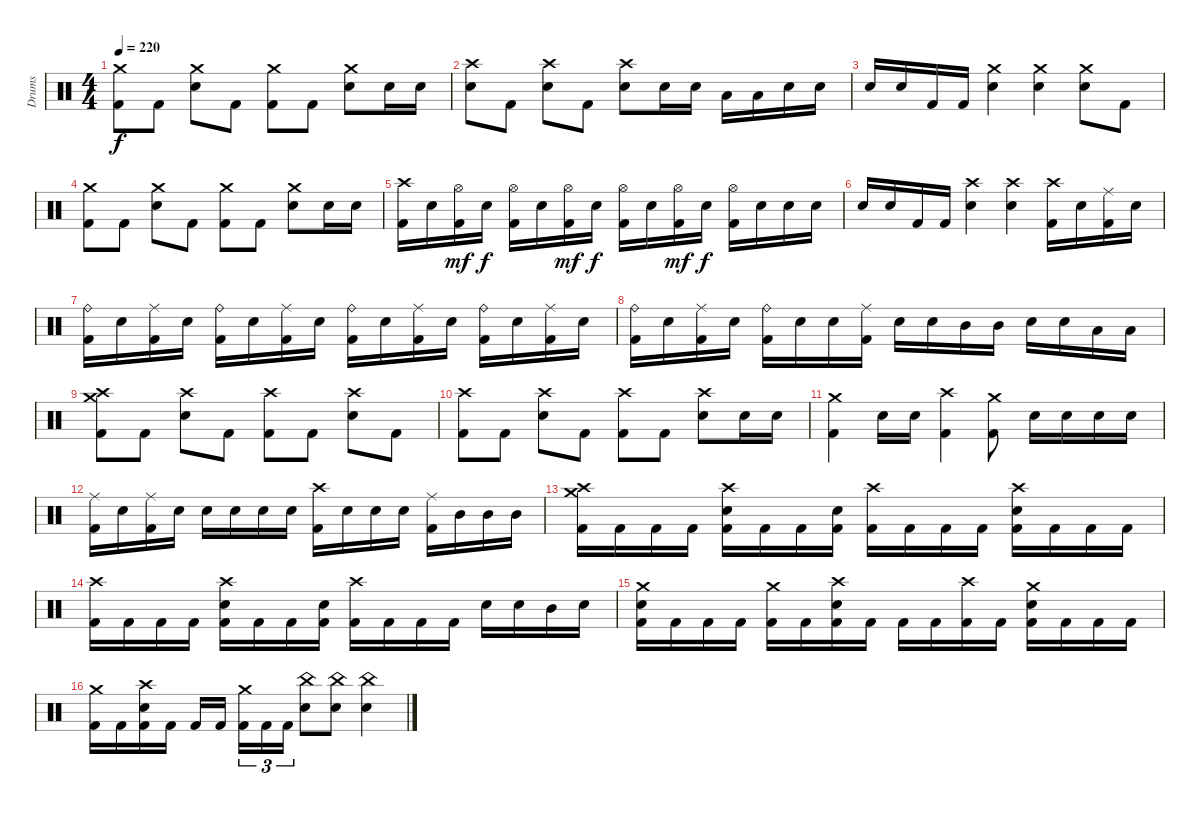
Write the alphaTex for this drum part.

\track ("Drums" "Drums") {instrument percussion}
\staff {score}
\articulation defaults
\ts (4 4)
\tempo 220
\clef neutral
\ks c
("Crash medium (hit)" "Kick (hit) 2").8{dy f} "Kick (hit) 2".8 ("Crash medium (hit)" "Electric Snare (hit)").8 "Kick (hit) 2".8 ("Crash medium (hit)" "Kick (hit) 2").8 "Kick (hit) 2".8 ("Crash medium (hit)" "Electric Snare (hit)").8 "Electric Snare (hit)".16 "Electric Snare (hit)".16 |
("Crash high (hit)" "Electric Snare (hit)").8 "Kick (hit) 2".8 ("Crash high (hit)" "Electric Snare (hit)").8 "Kick (hit) 2".8 ("Crash high (hit)" "Electric Snare (hit)").8 "Electric Snare (hit)".16 "Electric Snare (hit)".16 "Low Tom (hit)".16 "Low Tom (hit)".16 "Electric Snare (hit)".16 "Electric Snare (hit)".16 |
"Electric Snare (hit)".16 "Electric Snare (hit)".16 "Kick (hit) 2".16 "Kick (hit) 2".16 ("Crash medium (hit)" "Electric Snare (hit)").4 ("Crash medium (hit)" "Electric Snare (hit)").4 ("Crash medium (hit)" "Electric Snare (hit)").8 "Kick (hit) 2".8 |
("Crash medium (hit)" "Kick (hit) 2").8 "Kick (hit) 2".8 ("Crash medium (hit)" "Electric Snare (hit)").8 "Kick (hit) 2".8 ("Crash medium (hit)" "Kick (hit) 2").8 "Kick (hit) 2".8 ("Crash medium (hit)" "Electric Snare (hit)").8 "Electric Snare (hit)".16 "Electric Snare (hit)".16 |
("Crash high (hit)" "Kick (hit) 2").16 "Electric Snare (hit)".16 ("Hi-Hat (open)" "Kick (hit) 2").16{dy mf} "Electric Snare (hit)".16{dy f} ("Hi-Hat (open)" "Kick (hit) 2").16 "Electric Snare (hit)".16 ("Hi-Hat (open)" "Kick (hit) 2").16{dy mf} "Electric Snare (hit)".16{dy f} ("Hi-Hat (open)" "Kick (hit) 2").16 "Electric Snare (hit)".16 ("Hi-Hat (open)" "Kick (hit) 2").16{dy mf} "Electric Snare (hit)".16{dy f} ("Hi-Hat (open)" "Kick (hit) 2").16 "Electric Snare (hit)".16 "Electric Snare (hit)".16 "Electric Snare (hit)".16 |
"Electric Snare (hit)".16 "Electric Snare (hit)".16 "Kick (hit) 2".16 "Kick (hit) 2".16 ("Crash high (hit)" "Electric Snare (hit)").4 ("Crash high (hit)" "Electric Snare (hit)").4 ("Crash high (hit)" "Kick (hit) 2").16 "Electric Snare (hit)".16 ("Ride (middle)" "Kick (hit) 2").16 "Electric Snare (hit)".16 |
("Ride (bell)" "Kick (hit) 2").16 "Electric Snare (hit)".16 ("Ride (middle)" "Kick (hit) 2").16 "Electric Snare (hit)".16 ("Ride (bell)" "Kick (hit) 2").16 "Electric Snare (hit)".16 ("Ride (middle)" "Kick (hit) 2").16 "Electric Snare (hit)".16 ("Ride (bell)" "Kick (hit) 2").16 "Electric Snare (hit)".16 ("Ride (middle)" "Kick (hit) 2").16 "Electric Snare (hit)".16 ("Ride (bell)" "Kick (hit) 2").16 "Electric Snare (hit)".16 ("Ride (middle)" "Kick (hit) 2").16 "Electric Snare (hit)".16 |
("Ride (bell)" "Kick (hit) 2").16 "Electric Snare (hit)".16 ("Ride (middle)" "Kick (hit) 2").16 "Electric Snare (hit)".16 ("Ride (bell)" "Kick (hit) 2").16 "Electric Snare (hit)".16 "Electric Snare (hit)".16 ("Ride (middle)" "Kick (hit) 2").16 "Electric Snare (hit)".16 "Electric Snare (hit)".16 "Mid Tom (hit)".16 "Mid Tom (hit)".16 "Electric Snare (hit)".16 "Electric Snare (hit)".16 "Low Tom (hit)".16 "Low Tom (hit)".16 |
("Crash medium (hit)" "Crash high (hit)" "Kick (hit) 2").8 "Kick (hit) 2".8 ("Crash high (hit)" "Electric Snare (hit)").8 "Kick (hit) 2".8 ("Crash high (hit)" "Kick (hit) 2").8 "Kick (hit) 2".8 ("Crash high (hit)" "Electric Snare (hit)").8 "Kick (hit) 2".8 |
("Crash high (hit)" "Kick (hit) 2").8 "Kick (hit) 2".8 ("Crash high (hit)" "Electric Snare (hit)").8 "Kick (hit) 2".8 ("Crash high (hit)" "Kick (hit) 2").8 "Kick (hit) 2".8 ("Crash high (hit)" "Electric Snare (hit)").8 "Electric Snare (hit)".16 "Electric Snare (hit)".16 |
("Crash medium (hit)" "Kick (hit) 2").4 "Electric Snare (hit)".16 "Electric Snare (hit)".16 ("Crash high (hit)" "Kick (hit) 2").4 ("Crash medium (hit)" "Kick (hit) 2").8 "Electric Snare (hit)".16 "Electric Snare (hit)".16 "Electric Snare (hit)".16 "Electric Snare (hit)".16 |
("Ride (middle)" "Kick (hit) 2").16 "Electric Snare (hit)".16 ("Ride (middle)" "Kick (hit) 2").16 "Electric Snare (hit)".16 "Electric Snare (hit)".16 "Electric Snare (hit)".16 "Electric Snare (hit)".16 "Electric Snare (hit)".16 ("Crash high (hit)" "Kick (hit) 2").16 "Electric Snare (hit)".16 "Electric Snare (hit)".16 "Electric Snare (hit)".16 ("Ride (middle)" "Kick (hit) 2").16 "Mid Tom (hit)".16 "Mid Tom (hit)".16 "Mid Tom (hit)".16 |
("Crash medium (hit)" "Crash high (hit)" "Kick (hit) 2").16 "Kick (hit) 2".16 "Kick (hit) 2".16 "Kick (hit) 2".16 ("Crash high (hit)" "Electric Snare (hit)" "Kick (hit) 2").16 "Kick (hit) 2".16 "Kick (hit) 2".16 ("Electric Snare (hit)" "Kick (hit) 2").16 ("Crash high (hit)" "Kick (hit) 2").16 "Kick (hit) 2".16 "Kick (hit) 2".16 "Kick (hit) 2".16 ("Crash high (hit)" "Electric Snare (hit)" "Kick (hit) 2").16 "Kick (hit) 2".16 "Kick (hit) 2".16 "Kick (hit) 2".16 |
("Crash high (hit)" "Kick (hit) 2").16 "Kick (hit) 2".16 "Kick (hit) 2".16 "Kick (hit) 2".16 ("Crash high (hit)" "Electric Snare (hit)" "Kick (hit) 2").16 "Kick (hit) 2".16 "Kick (hit) 2".16 ("Electric Snare (hit)" "Kick (hit) 2").16 ("Crash high (hit)" "Kick (hit) 2").16 "Kick (hit) 2".16 "Kick (hit) 2".16 "Kick (hit) 2".16 "Electric Snare (hit)".16 "Electric Snare (hit)".16 "Mid Tom (hit)".16 "Electric Snare (hit)".16 |
("Crash medium (hit)" "Electric Snare (hit)" "Kick (hit) 2").16 "Kick (hit) 2".16 "Kick (hit) 2".16 "Kick (hit) 2".16 ("Crash medium (hit)" "Kick (hit) 2").16 "Kick (hit) 2".16 ("Crash high (hit)" "Electric Snare (hit)" "Kick (hit) 2").16 "Kick (hit) 2".16 "Kick (hit) 2".16 "Kick (hit) 2".16 ("Crash high (hit)" "Kick (hit) 2").16 "Kick (hit) 2".16 ("Crash medium (hit)" "Electric Snare (hit)" "Kick (hit) 2").16 "Kick (hit) 2".16 "Kick (hit) 2".16 "Kick (hit) 2".16 |
("Crash medium (hit)" "Kick (hit) 2").16 "Kick (hit) 2".16 ("Crash high (hit)" "Electric Snare (hit)" "Kick (hit) 2").16 "Kick (hit) 2".16 "Kick (hit) 2".16 "Kick (hit) 2".16{beam splitsecondary} ("Crash medium (hit)" "Kick (hit) 2").16{tu (3 2)} "Kick (hit) 2".16{tu (3 2)} "Kick (hit) 2".16{tu (3 2)} ("China (hit)" "Electric Snare (hit)").8 ("China (hit)" "Electric Snare (hit)").8 ("China (hit)" "Electric Snare (hit)").4
